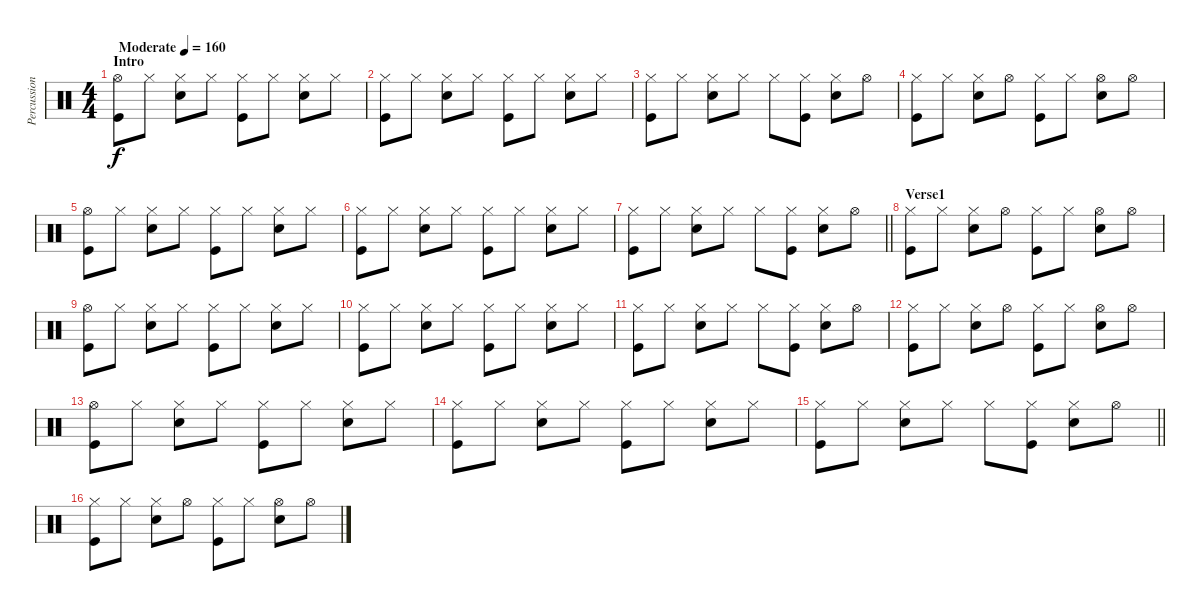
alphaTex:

\track ("Percussioni" "Percussion") {instrument percussion}
\staff {score}
\articulation defaults
\ts (4 4)
\section ("" "Intro")
\tempo (160 "Moderate")
\clef neutral
\ks c
("Hi-Hat (open)" "Kick (hit)").8{dy f} "Hi-Hat (closed)".8 ("Hi-Hat (closed)" "Snare (hit) 2").8 "Hi-Hat (closed)".8 ("Hi-Hat (closed)" "Kick (hit)").8 "Hi-Hat (closed)".8 ("Hi-Hat (closed)" "Snare (hit) 2").8 "Hi-Hat (closed)".8 |
("Hi-Hat (closed)" "Kick (hit)").8 "Hi-Hat (closed)".8 ("Hi-Hat (closed)" "Snare (hit) 2").8 "Hi-Hat (closed)".8 ("Hi-Hat (closed)" "Kick (hit)").8 "Hi-Hat (closed)".8 ("Hi-Hat (closed)" "Snare (hit) 2").8 "Hi-Hat (closed)".8 |
("Hi-Hat (closed)" "Kick (hit)").8 "Hi-Hat (closed)".8 ("Hi-Hat (closed)" "Snare (hit) 2").8 "Hi-Hat (closed)".8 "Hi-Hat (closed)".8 ("Hi-Hat (closed)" "Kick (hit)").8 ("Hi-Hat (closed)" "Snare (hit) 2").8 "Hi-Hat (open)".8 |
("Hi-Hat (closed)" "Kick (hit)").8 "Hi-Hat (closed)".8 ("Hi-Hat (closed)" "Snare (hit) 2").8 "Hi-Hat (open)".8 ("Hi-Hat (closed)" "Kick (hit)").8 "Hi-Hat (closed)".8 ("Hi-Hat (open)" "Snare (hit) 2").8 "Hi-Hat (open)".8 |
("Hi-Hat (open)" "Kick (hit)").8 "Hi-Hat (closed)".8 ("Hi-Hat (closed)" "Snare (hit) 2").8 "Hi-Hat (closed)".8 ("Hi-Hat (closed)" "Kick (hit)").8 "Hi-Hat (closed)".8 ("Hi-Hat (closed)" "Snare (hit) 2").8 "Hi-Hat (closed)".8 |
("Hi-Hat (closed)" "Kick (hit)").8 "Hi-Hat (closed)".8 ("Hi-Hat (closed)" "Snare (hit) 2").8 "Hi-Hat (closed)".8 ("Hi-Hat (closed)" "Kick (hit)").8 "Hi-Hat (closed)".8 ("Hi-Hat (closed)" "Snare (hit) 2").8 "Hi-Hat (closed)".8 |
\barLineRight lightlight
("Hi-Hat (closed)" "Kick (hit)").8 "Hi-Hat (closed)".8 ("Hi-Hat (closed)" "Snare (hit) 2").8 "Hi-Hat (closed)".8 "Hi-Hat (closed)".8 ("Hi-Hat (closed)" "Kick (hit)").8 ("Hi-Hat (closed)" "Snare (hit) 2").8 "Hi-Hat (open)".8 |
\section ("" "Verse1")
("Hi-Hat (closed)" "Kick (hit)").8 "Hi-Hat (closed)".8 ("Hi-Hat (closed)" "Snare (hit) 2").8 "Hi-Hat (open)".8 ("Hi-Hat (closed)" "Kick (hit)").8 "Hi-Hat (closed)".8 ("Hi-Hat (open)" "Snare (hit) 2").8 "Hi-Hat (open)".8 |
("Hi-Hat (open)" "Kick (hit)").8 "Hi-Hat (closed)".8 ("Hi-Hat (closed)" "Snare (hit) 2").8 "Hi-Hat (closed)".8 ("Hi-Hat (closed)" "Kick (hit)").8 "Hi-Hat (closed)".8 ("Hi-Hat (closed)" "Snare (hit) 2").8 "Hi-Hat (closed)".8 |
("Hi-Hat (closed)" "Kick (hit)").8 "Hi-Hat (closed)".8 ("Hi-Hat (closed)" "Snare (hit) 2").8 "Hi-Hat (closed)".8 ("Hi-Hat (closed)" "Kick (hit)").8 "Hi-Hat (closed)".8 ("Hi-Hat (closed)" "Snare (hit) 2").8 "Hi-Hat (closed)".8 |
("Hi-Hat (closed)" "Kick (hit)").8 "Hi-Hat (closed)".8 ("Hi-Hat (closed)" "Snare (hit) 2").8 "Hi-Hat (closed)".8 "Hi-Hat (closed)".8 ("Hi-Hat (closed)" "Kick (hit)").8 ("Hi-Hat (closed)" "Snare (hit) 2").8 "Hi-Hat (open)".8 |
("Hi-Hat (closed)" "Kick (hit)").8 "Hi-Hat (closed)".8 ("Hi-Hat (closed)" "Snare (hit) 2").8 "Hi-Hat (open)".8 ("Hi-Hat (closed)" "Kick (hit)").8 "Hi-Hat (closed)".8 ("Hi-Hat (open)" "Snare (hit) 2").8 "Hi-Hat (open)".8 |
("Hi-Hat (open)" "Kick (hit)").8 "Hi-Hat (closed)".8 ("Hi-Hat (closed)" "Snare (hit) 2").8 "Hi-Hat (closed)".8 ("Hi-Hat (closed)" "Kick (hit)").8 "Hi-Hat (closed)".8 ("Hi-Hat (closed)" "Snare (hit) 2").8 "Hi-Hat (closed)".8 |
("Hi-Hat (closed)" "Kick (hit)").8 "Hi-Hat (closed)".8 ("Hi-Hat (closed)" "Snare (hit) 2").8 "Hi-Hat (closed)".8 ("Hi-Hat (closed)" "Kick (hit)").8 "Hi-Hat (closed)".8 ("Hi-Hat (closed)" "Snare (hit) 2").8 "Hi-Hat (closed)".8 |
\barLineRight lightlight
("Hi-Hat (closed)" "Kick (hit)").8 "Hi-Hat (closed)".8 ("Hi-Hat (closed)" "Snare (hit) 2").8 "Hi-Hat (closed)".8 "Hi-Hat (closed)".8 ("Hi-Hat (closed)" "Kick (hit)").8 ("Hi-Hat (closed)" "Snare (hit) 2").8 "Hi-Hat (open)".8 |
("Hi-Hat (closed)" "Kick (hit)").8 "Hi-Hat (closed)".8 ("Hi-Hat (closed)" "Snare (hit) 2").8 "Hi-Hat (open)".8 ("Hi-Hat (closed)" "Kick (hit)").8 "Hi-Hat (closed)".8 ("Hi-Hat (open)" "Snare (hit) 2").8 "Hi-Hat (open)".8
